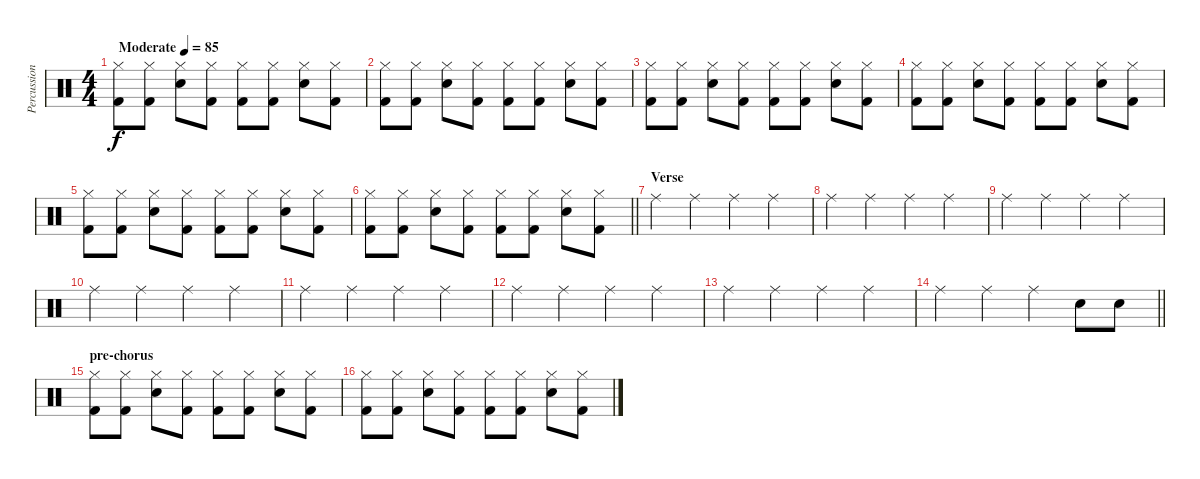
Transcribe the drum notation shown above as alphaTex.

\track ("Percussion" "Percussion") {instrument percussion}
\staff {score}
\articulation defaults
\ts (4 4)
\tempo (85 "Moderate")
\clef neutral
\ks c
("Hi-Hat (closed)" "Kick (hit) 2").8{dy f} ("Hi-Hat (closed)" "Kick (hit) 2").8 ("Hi-Hat (closed)" "Snare (hit) 2").8 ("Hi-Hat (closed)" "Kick (hit) 2").8 ("Hi-Hat (closed)" "Kick (hit) 2").8 ("Hi-Hat (closed)" "Kick (hit) 2").8 ("Hi-Hat (closed)" "Snare (hit) 2").8 ("Hi-Hat (closed)" "Kick (hit) 2").8 |
("Hi-Hat (closed)" "Kick (hit) 2").8 ("Hi-Hat (closed)" "Kick (hit) 2").8 ("Hi-Hat (closed)" "Snare (hit) 2").8 ("Hi-Hat (closed)" "Kick (hit) 2").8 ("Hi-Hat (closed)" "Kick (hit) 2").8 ("Hi-Hat (closed)" "Kick (hit) 2").8 ("Hi-Hat (closed)" "Snare (hit) 2").8 ("Hi-Hat (closed)" "Kick (hit) 2").8 |
("Hi-Hat (closed)" "Kick (hit) 2").8 ("Hi-Hat (closed)" "Kick (hit) 2").8 ("Hi-Hat (closed)" "Snare (hit) 2").8 ("Hi-Hat (closed)" "Kick (hit) 2").8 ("Hi-Hat (closed)" "Kick (hit) 2").8 ("Hi-Hat (closed)" "Kick (hit) 2").8 ("Hi-Hat (closed)" "Snare (hit) 2").8 ("Hi-Hat (closed)" "Kick (hit) 2").8 |
("Hi-Hat (closed)" "Kick (hit) 2").8 ("Hi-Hat (closed)" "Kick (hit) 2").8 ("Hi-Hat (closed)" "Snare (hit) 2").8 ("Hi-Hat (closed)" "Kick (hit) 2").8 ("Hi-Hat (closed)" "Kick (hit) 2").8 ("Hi-Hat (closed)" "Kick (hit) 2").8 ("Hi-Hat (closed)" "Snare (hit) 2").8 ("Hi-Hat (closed)" "Kick (hit) 2").8 |
("Hi-Hat (closed)" "Kick (hit) 2").8 ("Hi-Hat (closed)" "Kick (hit) 2").8 ("Hi-Hat (closed)" "Snare (hit) 2").8 ("Hi-Hat (closed)" "Kick (hit) 2").8 ("Hi-Hat (closed)" "Kick (hit) 2").8 ("Hi-Hat (closed)" "Kick (hit) 2").8 ("Hi-Hat (closed)" "Snare (hit) 2").8 ("Hi-Hat (closed)" "Kick (hit) 2").8 |
\barLineRight lightlight
("Hi-Hat (closed)" "Kick (hit) 2").8 ("Hi-Hat (closed)" "Kick (hit) 2").8 ("Hi-Hat (closed)" "Snare (hit) 2").8 ("Hi-Hat (closed)" "Kick (hit) 2").8 ("Hi-Hat (closed)" "Kick (hit) 2").8 ("Hi-Hat (closed)" "Kick (hit) 2").8 ("Hi-Hat (closed)" "Snare (hit) 2").8 ("Hi-Hat (closed)" "Kick (hit) 2").8 |
\section ("" "Verse")
"Ride (middle)".4 "Ride (middle)".4 "Ride (middle)".4 "Ride (middle)".4 |
"Ride (middle)".4 "Ride (middle)".4 "Ride (middle)".4 "Ride (middle)".4 |
"Ride (middle)".4 "Ride (middle)".4 "Ride (middle)".4 "Ride (middle)".4 |
"Ride (middle)".4 "Ride (middle)".4 "Ride (middle)".4 "Ride (middle)".4 |
"Ride (middle)".4 "Ride (middle)".4 "Ride (middle)".4 "Ride (middle)".4 |
"Ride (middle)".4 "Ride (middle)".4 "Ride (middle)".4 "Ride (middle)".4 |
"Ride (middle)".4 "Ride (middle)".4 "Ride (middle)".4 "Ride (middle)".4 |
\barLineRight lightlight "Ride (middle)".4 "Ride (middle)".4 "Ride (middle)".4 "Snare (hit) 2".8 "Snare (hit) 2".8
|
\section ("" "pre-chorus")
("Hi-Hat (closed)" "Kick (hit) 2").8 ("Hi-Hat (closed)" "Kick (hit) 2").8 ("Hi-Hat (closed)" "Snare (hit) 2").8 ("Hi-Hat (closed)" "Kick (hit) 2").8 ("Hi-Hat (closed)" "Kick (hit) 2").8 ("Hi-Hat (closed)" "Kick (hit) 2").8 ("Hi-Hat (closed)" "Snare (hit) 2").8 ("Hi-Hat (closed)" "Kick (hit) 2").8 |
("Hi-Hat (closed)" "Kick (hit) 2").8 ("Hi-Hat (closed)" "Kick (hit) 2").8 ("Hi-Hat (closed)" "Snare (hit) 2").8 ("Hi-Hat (closed)" "Kick (hit) 2").8 ("Hi-Hat (closed)" "Kick (hit) 2").8 ("Hi-Hat (closed)" "Kick (hit) 2").8 ("Hi-Hat (closed)" "Snare (hit) 2").8 ("Hi-Hat (closed)" "Kick (hit) 2").8
